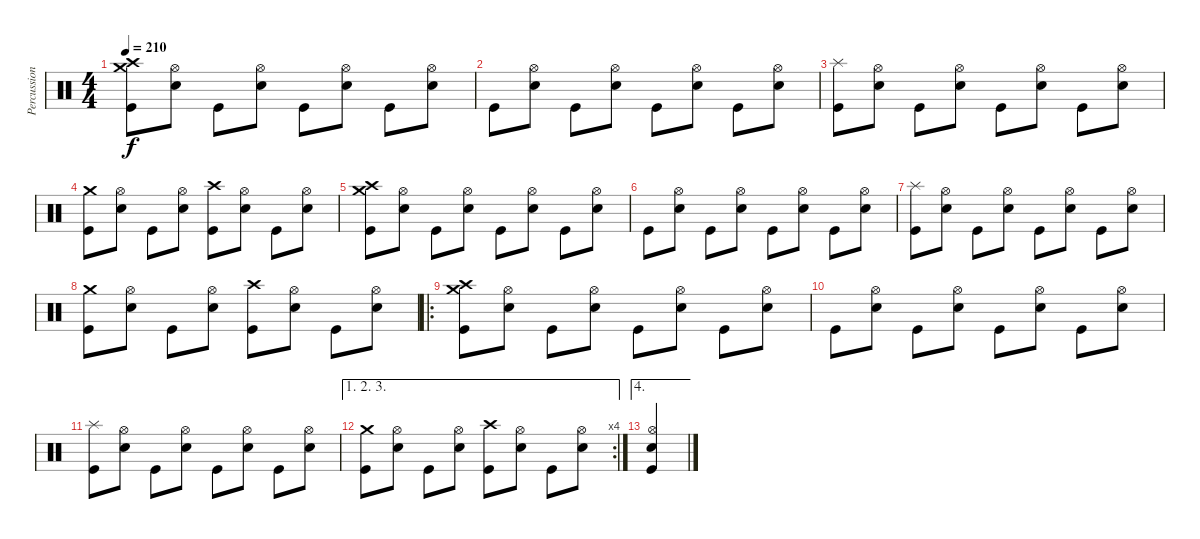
\track ("Percussion" "Percussion") {instrument percussion}
\staff {score}
\articulation defaults
\ts (4 4)
\tempo 210
\clef neutral
\ks c
("Crash medium (hit)" "Crash high (hit)" "Kick (hit)").8{dy f} ("Hi-Hat (open)" "Electric Snare (hit)").8 "Kick (hit)".8 ("Hi-Hat (open)" "Electric Snare (hit)").8 "Kick (hit)".8 ("Hi-Hat (open)" "Electric Snare (hit)").8 "Kick (hit)".8 ("Hi-Hat (open)" "Electric Snare (hit)").8 |
"Kick (hit)".8 ("Hi-Hat (open)" "Electric Snare (hit)").8 "Kick (hit)".8 ("Hi-Hat (open)" "Electric Snare (hit)").8 "Kick (hit)".8 ("Hi-Hat (open)" "Electric Snare (hit)").8 "Kick (hit)".8 ("Hi-Hat (open)" "Electric Snare (hit)").8 |
("Splash (hit)" "Kick (hit)").8 ("Hi-Hat (open)" "Electric Snare (hit)").8 "Kick (hit)".8 ("Hi-Hat (open)" "Electric Snare (hit)").8 "Kick (hit)".8 ("Hi-Hat (open)" "Electric Snare (hit)").8 "Kick (hit)".8 ("Hi-Hat (open)" "Electric Snare (hit)").8 |
("Crash medium (hit)" "Kick (hit)").8 ("Hi-Hat (open)" "Electric Snare (hit)").8 "Kick (hit)".8 ("Hi-Hat (open)" "Electric Snare (hit)").8 ("Crash high (hit)" "Kick (hit)").8 ("Hi-Hat (open)" "Electric Snare (hit)").8 "Kick (hit)".8 ("Hi-Hat (open)" "Electric Snare (hit)").8 |
("Crash medium (hit)" "Crash high (hit)" "Kick (hit)").8 ("Hi-Hat (open)" "Electric Snare (hit)").8 "Kick (hit)".8 ("Hi-Hat (open)" "Electric Snare (hit)").8 "Kick (hit)".8 ("Hi-Hat (open)" "Electric Snare (hit)").8 "Kick (hit)".8 ("Hi-Hat (open)" "Electric Snare (hit)").8 |
"Kick (hit)".8 ("Hi-Hat (open)" "Electric Snare (hit)").8 "Kick (hit)".8 ("Hi-Hat (open)" "Electric Snare (hit)").8 "Kick (hit)".8 ("Hi-Hat (open)" "Electric Snare (hit)").8 "Kick (hit)".8 ("Hi-Hat (open)" "Electric Snare (hit)").8 |
("Splash (hit)" "Kick (hit)").8 ("Hi-Hat (open)" "Electric Snare (hit)").8 "Kick (hit)".8 ("Hi-Hat (open)" "Electric Snare (hit)").8 "Kick (hit)".8 ("Hi-Hat (open)" "Electric Snare (hit)").8 "Kick (hit)".8 ("Hi-Hat (open)" "Electric Snare (hit)").8 |
("Crash medium (hit)" "Kick (hit)").8 ("Hi-Hat (open)" "Electric Snare (hit)").8 "Kick (hit)".8 ("Hi-Hat (open)" "Electric Snare (hit)").8 ("Crash high (hit)" "Kick (hit)").8 ("Hi-Hat (open)" "Electric Snare (hit)").8 "Kick (hit)".8 ("Hi-Hat (open)" "Electric Snare (hit)").8 |
\ro
("Crash medium (hit)" "Crash high (hit)" "Kick (hit)").8 ("Hi-Hat (open)" "Electric Snare (hit)").8 "Kick (hit)".8 ("Hi-Hat (open)" "Electric Snare (hit)").8 "Kick (hit)".8 ("Hi-Hat (open)" "Electric Snare (hit)").8 "Kick (hit)".8 ("Hi-Hat (open)" "Electric Snare (hit)").8 |
"Kick (hit)".8 ("Hi-Hat (open)" "Electric Snare (hit)").8 "Kick (hit)".8 ("Hi-Hat (open)" "Electric Snare (hit)").8 "Kick (hit)".8 ("Hi-Hat (open)" "Electric Snare (hit)").8 "Kick (hit)".8 ("Hi-Hat (open)" "Electric Snare (hit)").8 |
("Splash (hit)" "Kick (hit)").8 ("Hi-Hat (open)" "Electric Snare (hit)").8 "Kick (hit)".8 ("Hi-Hat (open)" "Electric Snare (hit)").8 "Kick (hit)".8 ("Hi-Hat (open)" "Electric Snare (hit)").8 "Kick (hit)".8 ("Hi-Hat (open)" "Electric Snare (hit)").8 |
\ae (1 2 3)
\rc 4
("Crash medium (hit)" "Kick (hit)").8 ("Hi-Hat (open)" "Electric Snare (hit)").8 "Kick (hit)".8 ("Hi-Hat (open)" "Electric Snare (hit)").8 ("Crash high (hit)" "Kick (hit)").8 ("Hi-Hat (open)" "Electric Snare (hit)").8 "Kick (hit)".8 ("Hi-Hat (open)" "Electric Snare (hit)").8 |
\ae 4
("Hi-Hat (open)" "Electric Snare (hit)" "Kick (hit)").4
